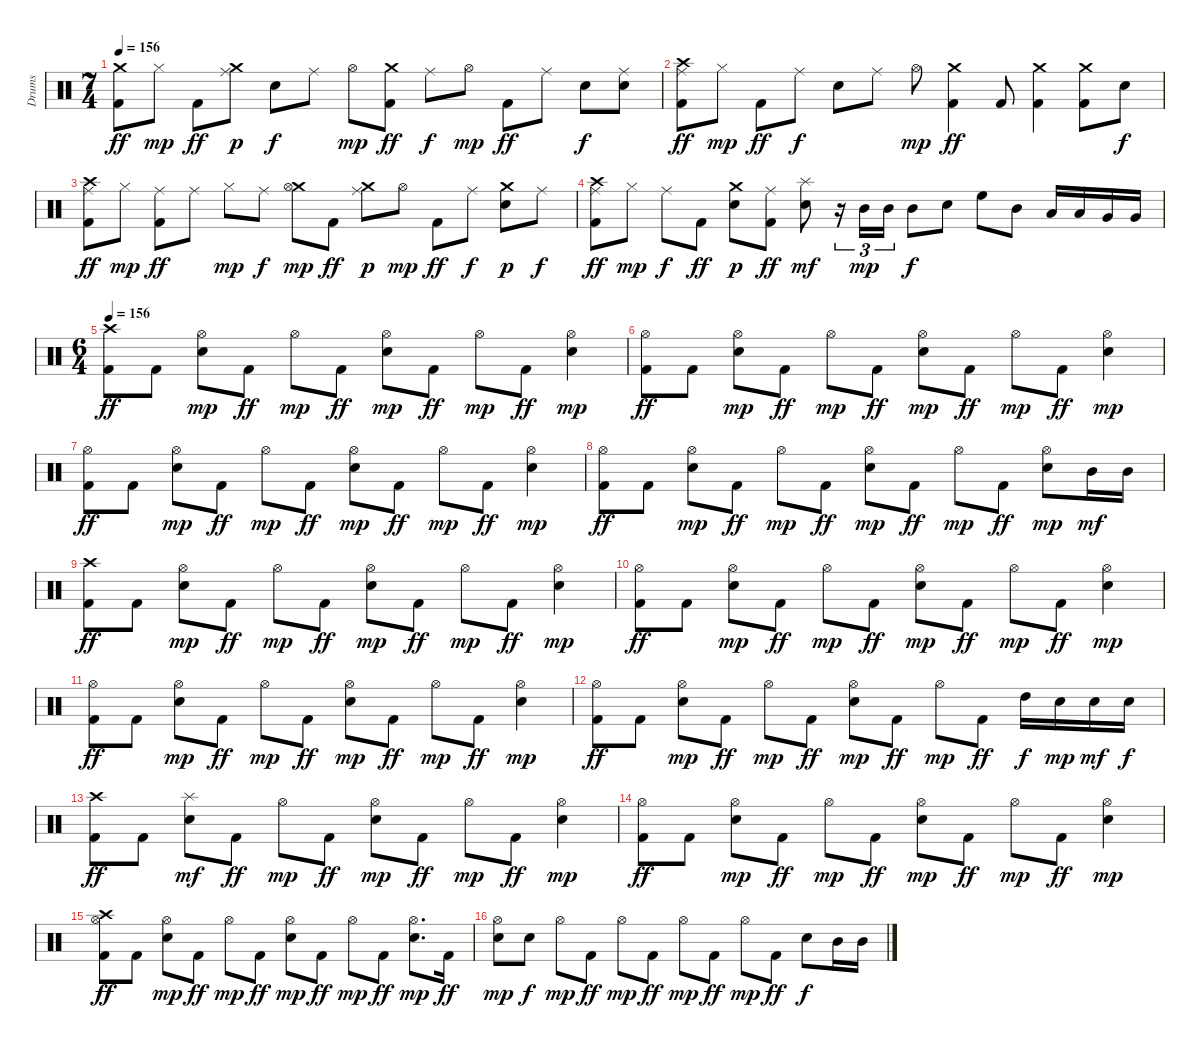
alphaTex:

\track ("Drums" "Drums") {instrument percussion}
\staff {score}
\articulation defaults
\ts (7 4)
\tempo 156
\clef neutral
\ks c
("Crash medium (hit)" "Kick (hit) 2").8{dy ff} "Hi-Hat (closed)".8{dy mp} "Kick (hit) 2".8{dy ff} ("Crash medium (hit)" "Ride (middle)").8{dy p} "Electric Snare (hit)".8{dy f} "Ride (middle)".8 "Hi-Hat (open)".8{dy mp} ("Crash medium (hit)" "Kick (hit) 2").8{dy ff} "Ride (middle)".8{dy f} "Hi-Hat (open)".8{dy mp} "Kick (hit) 2".8{dy ff} "Ride (middle)".8 "Electric Snare (hit)".8{dy f} ("Ride (middle)" "Electric Snare (hit)").8 |
("Crash high (hit)" "Ride (middle)" "Kick (hit) 2").8{dy ff} "Hi-Hat (closed)".8{dy mp} "Kick (hit) 2".8{dy ff} "Ride (middle)".8{dy f} "Electric Snare (hit)".8 "Ride (middle)".8 "Hi-Hat (open)".8{dy mp} ("Crash medium (hit)" "Kick (hit) 2").4{dy ff} "Kick (hit) 2".8 ("Crash medium (hit)" "Kick (hit) 2").4 ("Crash medium (hit)" "Kick (hit) 2").8 "Electric Snare (hit)".8{dy f} |
("Crash high (hit)" "Ride (middle)" "Kick (hit) 2").8{dy ff} "Hi-Hat (closed)".8{dy mp} ("Ride (middle)" "Kick (hit) 2").8{dy ff} "Ride (middle)".8 "Hi-Hat (closed)".8{dy mp} "Ride (middle)".8{dy f} ("Crash medium (hit)" "Hi-Hat (open)").8{dy mp} "Kick (hit) 2".8{dy ff} ("Crash medium (hit)" "Ride (middle)").8{dy p} "Hi-Hat (open)".8{dy mp} "Kick (hit) 2".8{dy ff} "Ride (middle)".8{dy f} ("Crash medium (hit)" "Electric Snare (hit)").8{dy p} "Ride (middle)".8{dy f} |
("Crash high (hit)" "Ride (middle)" "Kick (hit) 2").8{dy ff} "Hi-Hat (closed)".8{dy mp} "Ride (middle)".8{dy f} "Kick (hit) 2".8{dy ff} ("Crash medium (hit)" "Electric Snare (hit)").8{dy p} ("Ride (middle)" "Kick (hit) 2").8{dy ff} ("Splash (hit)" "Electric Snare (hit)").8{dy mf} r.16{tu (3 2)} "Mid Tom (hit)".16{tu (3 2) dy mp} "Mid Tom (hit)".16{tu (3 2)} "Mid Tom (hit)".8{dy f} "Electric Snare (hit)".8 "High Floor Tom (hit)".8 "Mid Tom (hit)".8 "Low Tom (hit)".16 "Low Tom (hit)".16 "Very Low Tom (hit)".16 "Very Low Tom (hit)".16 |
\ts (6 4)
\tempo 156
("Crash high (hit)" "Kick (hit) 2").8{dy ff} "Kick (hit) 2".8 ("Hi-Hat (open)" "Electric Snare (hit)").8{dy mp} "Kick (hit) 2".8{dy ff} "Hi-Hat (open)".8{dy mp} "Kick (hit) 2".8{dy ff} ("Hi-Hat (open)" "Electric Snare (hit)").8{dy mp} "Kick (hit) 2".8{dy ff} "Hi-Hat (open)".8{dy mp} "Kick (hit) 2".8{dy ff} ("Hi-Hat (open)" "Electric Snare (hit)").4{dy mp} |
("Hi-Hat (open)" "Kick (hit) 2").8{dy ff} "Kick (hit) 2".8 ("Hi-Hat (open)" "Electric Snare (hit)").8{dy mp} "Kick (hit) 2".8{dy ff} "Hi-Hat (open)".8{dy mp} "Kick (hit) 2".8{dy ff} ("Hi-Hat (open)" "Electric Snare (hit)").8{dy mp} "Kick (hit) 2".8{dy ff} "Hi-Hat (open)".8{dy mp} "Kick (hit) 2".8{dy ff} ("Hi-Hat (open)" "Electric Snare (hit)").4{dy mp} |
("Hi-Hat (open)" "Kick (hit) 2").8{dy ff} "Kick (hit) 2".8 ("Hi-Hat (open)" "Electric Snare (hit)").8{dy mp} "Kick (hit) 2".8{dy ff} "Hi-Hat (open)".8{dy mp} "Kick (hit) 2".8{dy ff} ("Hi-Hat (open)" "Electric Snare (hit)").8{dy mp} "Kick (hit) 2".8{dy ff} "Hi-Hat (open)".8{dy mp} "Kick (hit) 2".8{dy ff} ("Hi-Hat (open)" "Electric Snare (hit)").4{dy mp} |
("Hi-Hat (open)" "Kick (hit) 2").8{dy ff} "Kick (hit) 2".8 ("Hi-Hat (open)" "Electric Snare (hit)").8{dy mp} "Kick (hit) 2".8{dy ff} "Hi-Hat (open)".8{dy mp} "Kick (hit) 2".8{dy ff} ("Hi-Hat (open)" "Electric Snare (hit)").8{dy mp} "Kick (hit) 2".8{dy ff} "Hi-Hat (open)".8{dy mp} "Kick (hit) 2".8{dy ff} ("Hi-Hat (open)" "Electric Snare (hit)").8{dy mp} "Mid Tom (hit)".16{dy mf} "Mid Tom (hit)".16 |
("Crash high (hit)" "Kick (hit) 2").8{dy ff} "Kick (hit) 2".8 ("Hi-Hat (open)" "Electric Snare (hit)").8{dy mp} "Kick (hit) 2".8{dy ff} "Hi-Hat (open)".8{dy mp} "Kick (hit) 2".8{dy ff} ("Hi-Hat (open)" "Electric Snare (hit)").8{dy mp} "Kick (hit) 2".8{dy ff} "Hi-Hat (open)".8{dy mp} "Kick (hit) 2".8{dy ff} ("Hi-Hat (open)" "Electric Snare (hit)").4{dy mp} |
("Hi-Hat (open)" "Kick (hit) 2").8{dy ff} "Kick (hit) 2".8 ("Hi-Hat (open)" "Electric Snare (hit)").8{dy mp} "Kick (hit) 2".8{dy ff} "Hi-Hat (open)".8{dy mp} "Kick (hit) 2".8{dy ff} ("Hi-Hat (open)" "Electric Snare (hit)").8{dy mp} "Kick (hit) 2".8{dy ff} "Hi-Hat (open)".8{dy mp} "Kick (hit) 2".8{dy ff} ("Hi-Hat (open)" "Electric Snare (hit)").4{dy mp} |
("Hi-Hat (open)" "Kick (hit) 2").8{dy ff} "Kick (hit) 2".8 ("Hi-Hat (open)" "Electric Snare (hit)").8{dy mp} "Kick (hit) 2".8{dy ff} "Hi-Hat (open)".8{dy mp} "Kick (hit) 2".8{dy ff} ("Hi-Hat (open)" "Electric Snare (hit)").8{dy mp} "Kick (hit) 2".8{dy ff} "Hi-Hat (open)".8{dy mp} "Kick (hit) 2".8{dy ff} ("Hi-Hat (open)" "Electric Snare (hit)").4{dy mp} |
("Hi-Hat (open)" "Kick (hit) 2").8{dy ff} "Kick (hit) 2".8 ("Hi-Hat (open)" "Electric Snare (hit)").8{dy mp} "Kick (hit) 2".8{dy ff} "Hi-Hat (open)".8{dy mp} "Kick (hit) 2".8{dy ff} ("Hi-Hat (open)" "Electric Snare (hit)").8{dy mp} "Kick (hit) 2".8{dy ff} "Hi-Hat (open)".8{dy mp} "Kick (hit) 2".8{dy ff} "High Tom (hit)".16{dy f} "Electric Snare (hit)".16{dy mp} "Electric Snare (hit)".16{dy mf} "Electric Snare (hit)".16{dy f} |
("Crash high (hit)" "Kick (hit) 2").8{dy ff} "Kick (hit) 2".8 ("Splash (hit)" "Electric Snare (hit)").8{dy mf} "Kick (hit) 2".8{dy ff} "Hi-Hat (open)".8{dy mp} "Kick (hit) 2".8{dy ff} ("Hi-Hat (open)" "Electric Snare (hit)").8{dy mp} "Kick (hit) 2".8{dy ff} "Hi-Hat (open)".8{dy mp} "Kick (hit) 2".8{dy ff} ("Hi-Hat (open)" "Electric Snare (hit)").4{dy mp} |
("Hi-Hat (open)" "Kick (hit) 2").8{dy ff} "Kick (hit) 2".8 ("Hi-Hat (open)" "Electric Snare (hit)").8{dy mp} "Kick (hit) 2".8{dy ff} "Hi-Hat (open)".8{dy mp} "Kick (hit) 2".8{dy ff} ("Hi-Hat (open)" "Electric Snare (hit)").8{dy mp} "Kick (hit) 2".8{dy ff} "Hi-Hat (open)".8{dy mp} "Kick (hit) 2".8{dy ff} ("Hi-Hat (open)" "Electric Snare (hit)").4{dy mp} |
("Crash high (hit)" "Hi-Hat (open)" "Kick (hit) 2").8{dy ff} "Kick (hit) 2".8 ("Hi-Hat (open)" "Electric Snare (hit)").8{dy mp} "Kick (hit) 2".8{dy ff} "Hi-Hat (open)".8{dy mp} "Kick (hit) 2".8{dy ff} ("Hi-Hat (open)" "Electric Snare (hit)").8{dy mp} "Kick (hit) 2".8{dy ff} "Hi-Hat (open)".8{dy mp} "Kick (hit) 2".8{dy ff} ("Hi-Hat (open)" "Electric Snare (hit)").8{d dy mp} "Kick (hit) 2".16{dy ff} |
("Hi-Hat (open)" "Electric Snare (hit)").8{dy mp} "Electric Snare (hit)".8{dy f} "Hi-Hat (open)".8{dy mp} "Kick (hit) 2".8{dy ff} "Hi-Hat (open)".8{dy mp} "Kick (hit) 2".8{dy ff} "Hi-Hat (open)".8{dy mp} "Kick (hit) 2".8{dy ff} "Hi-Hat (open)".8{dy mp} "Kick (hit) 2".8{dy ff} "Electric Snare (hit)".8{dy f} "Mid Tom (hit)".16 "Mid Tom (hit)".16
